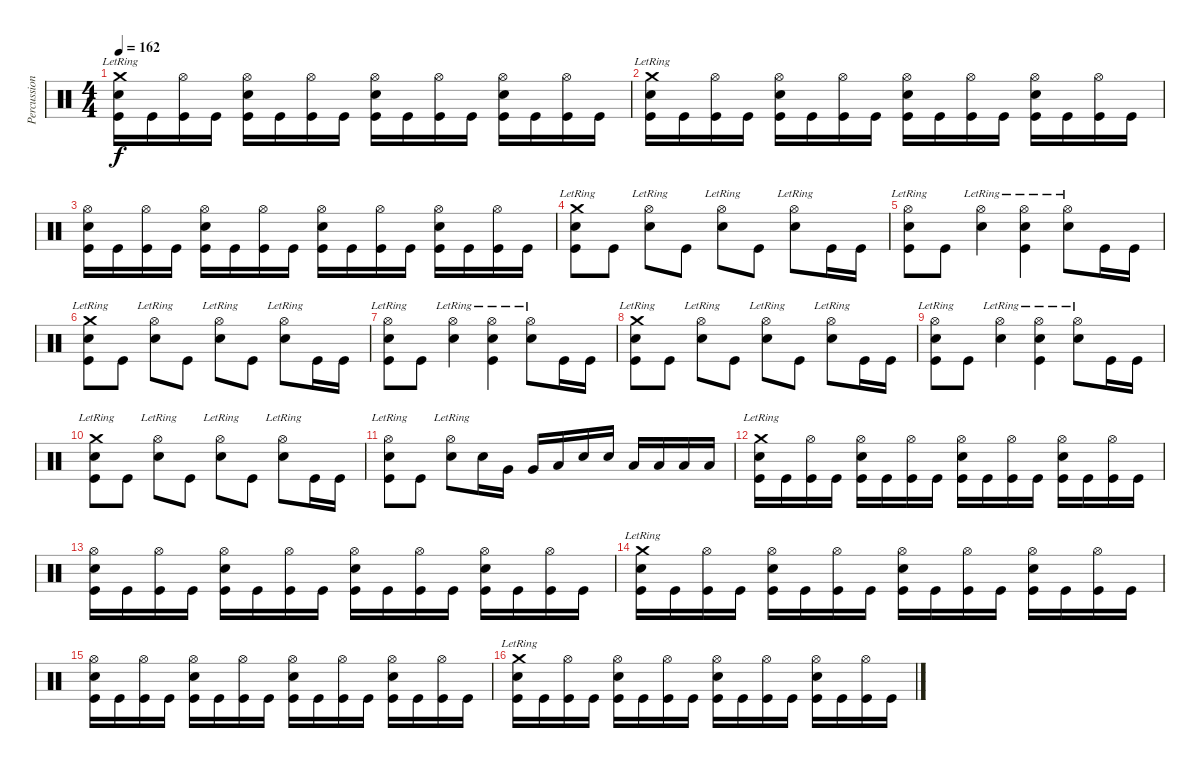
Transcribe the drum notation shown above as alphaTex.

\track ("Percussions" "Percussion") {instrument percussion}
\staff {score}
\articulation defaults
\ts (4 4)
\tempo 162
\clef neutral
\ks c
("Crash medium (hit)"{lr} "Snare (hit) 2" "Kick (hit)").16{dy f} "Kick (hit)".16 ("Hi-Hat (open)" "Kick (hit)").16 "Kick (hit)".16 ("Hi-Hat (open)" "Snare (hit) 2" "Kick (hit)").16 "Kick (hit)".16 ("Hi-Hat (open)" "Kick (hit)").16 "Kick (hit)".16 ("Hi-Hat (open)" "Snare (hit) 2" "Kick (hit)").16 "Kick (hit)".16 ("Hi-Hat (open)" "Kick (hit)").16 "Kick (hit)".16 ("Hi-Hat (open)" "Snare (hit) 2" "Kick (hit)").16 "Kick (hit)".16 ("Hi-Hat (open)" "Kick (hit)").16 "Kick (hit)".16 |
("Crash medium (hit)"{lr} "Snare (hit) 2" "Kick (hit)").16 "Kick (hit)".16 ("Hi-Hat (open)" "Kick (hit)").16 "Kick (hit)".16 ("Hi-Hat (open)" "Snare (hit) 2" "Kick (hit)").16 "Kick (hit)".16 ("Hi-Hat (open)" "Kick (hit)").16 "Kick (hit)".16 ("Hi-Hat (open)" "Snare (hit) 2" "Kick (hit)").16 "Kick (hit)".16 ("Hi-Hat (open)" "Kick (hit)").16 "Kick (hit)".16 ("Hi-Hat (open)" "Snare (hit) 2" "Kick (hit)").16 "Kick (hit)".16 ("Hi-Hat (open)" "Kick (hit)").16 "Kick (hit)".16 |
("Hi-Hat (open)" "Snare (hit) 2" "Kick (hit)").16 "Kick (hit)".16 ("Hi-Hat (open)" "Kick (hit)").16 "Kick (hit)".16 ("Hi-Hat (open)" "Snare (hit) 2" "Kick (hit)").16 "Kick (hit)".16 ("Hi-Hat (open)" "Kick (hit)").16 "Kick (hit)".16 ("Hi-Hat (open)" "Snare (hit) 2" "Kick (hit)").16 "Kick (hit)".16 ("Hi-Hat (open)" "Kick (hit)").16 "Kick (hit)".16 ("Hi-Hat (open)" "Snare (hit) 2" "Kick (hit)").16 "Kick (hit)".16 ("Hi-Hat (open)" "Kick (hit)").16 "Kick (hit)".16 |
("Crash medium (hit)"{lr} "Snare (hit) 2" "Kick (hit)").8 "Kick (hit)".8 ("Hi-Hat (open)"{lr} "Snare (hit) 2").8 "Kick (hit)".8 ("Hi-Hat (open)"{lr} "Snare (hit) 2").8 "Kick (hit)".8 ("Hi-Hat (open)"{lr} "Snare (hit) 2").8 "Kick (hit)".16 "Kick (hit)".16 |
("Hi-Hat (open)"{lr} "Snare (hit) 2" "Kick (hit)").8 "Kick (hit)".8 ("Hi-Hat (open)"{lr} "Snare (hit) 2").4 ("Hi-Hat (open)"{lr} "Snare (hit) 2" "Kick (hit)").4 ("Hi-Hat (open)"{lr} "Snare (hit) 2").8 "Kick (hit)".16 "Kick (hit)".16 |
("Crash medium (hit)"{lr} "Snare (hit) 2" "Kick (hit)").8 "Kick (hit)".8 ("Hi-Hat (open)"{lr} "Snare (hit) 2").8 "Kick (hit)".8 ("Hi-Hat (open)"{lr} "Snare (hit) 2").8 "Kick (hit)".8 ("Hi-Hat (open)"{lr} "Snare (hit) 2").8 "Kick (hit)".16 "Kick (hit)".16 |
("Hi-Hat (open)"{lr} "Snare (hit) 2" "Kick (hit)").8 "Kick (hit)".8 ("Hi-Hat (open)"{lr} "Snare (hit) 2").4 ("Hi-Hat (open)"{lr} "Snare (hit) 2" "Kick (hit)").4 ("Hi-Hat (open)"{lr} "Snare (hit) 2").8 "Kick (hit)".16 "Kick (hit)".16 |
("Crash medium (hit)"{lr} "Snare (hit) 2" "Kick (hit)").8 "Kick (hit)".8 ("Hi-Hat (open)"{lr} "Snare (hit) 2").8 "Kick (hit)".8 ("Hi-Hat (open)"{lr} "Snare (hit) 2").8 "Kick (hit)".8 ("Hi-Hat (open)"{lr} "Snare (hit) 2").8 "Kick (hit)".16 "Kick (hit)".16 |
("Hi-Hat (open)"{lr} "Snare (hit) 2" "Kick (hit)").8 "Kick (hit)".8 ("Hi-Hat (open)"{lr} "Snare (hit) 2").4 ("Hi-Hat (open)"{lr} "Snare (hit) 2" "Kick (hit)").4 ("Hi-Hat (open)"{lr} "Snare (hit) 2").8 "Kick (hit)".16 "Kick (hit)".16 |
("Crash medium (hit)"{lr} "Snare (hit) 2" "Kick (hit)").8 "Kick (hit)".8 ("Hi-Hat (open)"{lr} "Snare (hit) 2").8 "Kick (hit)".8 ("Hi-Hat (open)"{lr} "Snare (hit) 2").8 "Kick (hit)".8 ("Hi-Hat (open)"{lr} "Snare (hit) 2").8 "Kick (hit)".16 "Kick (hit)".16 |
("Hi-Hat (open)"{lr} "Snare (hit) 2" "Kick (hit)").8 "Kick (hit)".8 ("Hi-Hat (open)"{lr} "Snare (hit) 2").8 "Snare (hit) 2".16 "Very Low Tom (hit)".16 "Very Low Tom (hit)".16 "Low Floor Tom (hit)".16 "Snare (hit) 2".16 "Snare (hit) 2".16 "Low Floor Tom (hit)".16 "Low Floor Tom (hit)".16 "Low Floor Tom (hit)".16 "Low Floor Tom (hit)".16 |
("Crash medium (hit)"{lr} "Snare (hit) 2" "Kick (hit)").16 "Kick (hit)".16 ("Hi-Hat (open)" "Kick (hit)").16 "Kick (hit)".16 ("Hi-Hat (open)" "Snare (hit) 2" "Kick (hit)").16 "Kick (hit)".16 ("Hi-Hat (open)" "Kick (hit)").16 "Kick (hit)".16 ("Hi-Hat (open)" "Snare (hit) 2" "Kick (hit)").16 "Kick (hit)".16 ("Hi-Hat (open)" "Kick (hit)").16 "Kick (hit)".16 ("Hi-Hat (open)" "Snare (hit) 2" "Kick (hit)").16 "Kick (hit)".16 ("Hi-Hat (open)" "Kick (hit)").16 "Kick (hit)".16 |
("Hi-Hat (open)" "Snare (hit) 2" "Kick (hit)").16 "Kick (hit)".16 ("Hi-Hat (open)" "Kick (hit)").16 "Kick (hit)".16 ("Hi-Hat (open)" "Snare (hit) 2" "Kick (hit)").16 "Kick (hit)".16 ("Hi-Hat (open)" "Kick (hit)").16 "Kick (hit)".16 ("Hi-Hat (open)" "Snare (hit) 2" "Kick (hit)").16 "Kick (hit)".16 ("Hi-Hat (open)" "Kick (hit)").16 "Kick (hit)".16 ("Hi-Hat (open)" "Snare (hit) 2" "Kick (hit)").16 "Kick (hit)".16 ("Hi-Hat (open)" "Kick (hit)").16 "Kick (hit)".16 |
("Crash medium (hit)"{lr} "Snare (hit) 2" "Kick (hit)").16 "Kick (hit)".16 ("Hi-Hat (open)" "Kick (hit)").16 "Kick (hit)".16 ("Hi-Hat (open)" "Snare (hit) 2" "Kick (hit)").16 "Kick (hit)".16 ("Hi-Hat (open)" "Kick (hit)").16 "Kick (hit)".16 ("Hi-Hat (open)" "Snare (hit) 2" "Kick (hit)").16 "Kick (hit)".16 ("Hi-Hat (open)" "Kick (hit)").16 "Kick (hit)".16 ("Hi-Hat (open)" "Snare (hit) 2" "Kick (hit)").16 "Kick (hit)".16 ("Hi-Hat (open)" "Kick (hit)").16 "Kick (hit)".16 |
("Hi-Hat (open)" "Snare (hit) 2" "Kick (hit)").16 "Kick (hit)".16 ("Hi-Hat (open)" "Kick (hit)").16 "Kick (hit)".16 ("Hi-Hat (open)" "Snare (hit) 2" "Kick (hit)").16 "Kick (hit)".16 ("Hi-Hat (open)" "Kick (hit)").16 "Kick (hit)".16 ("Hi-Hat (open)" "Snare (hit) 2" "Kick (hit)").16 "Kick (hit)".16 ("Hi-Hat (open)" "Kick (hit)").16 "Kick (hit)".16 ("Hi-Hat (open)" "Snare (hit) 2" "Kick (hit)").16 "Kick (hit)".16 ("Hi-Hat (open)" "Kick (hit)").16 "Kick (hit)".16 |
("Crash medium (hit)"{lr} "Snare (hit) 2" "Kick (hit)").16 "Kick (hit)".16 ("Hi-Hat (open)" "Kick (hit)").16 "Kick (hit)".16 ("Hi-Hat (open)" "Snare (hit) 2" "Kick (hit)").16 "Kick (hit)".16 ("Hi-Hat (open)" "Kick (hit)").16 "Kick (hit)".16 ("Hi-Hat (open)" "Snare (hit) 2" "Kick (hit)").16 "Kick (hit)".16 ("Hi-Hat (open)" "Kick (hit)").16 "Kick (hit)".16 ("Hi-Hat (open)" "Snare (hit) 2" "Kick (hit)").16 "Kick (hit)".16 ("Hi-Hat (open)" "Kick (hit)").16 "Kick (hit)".16
